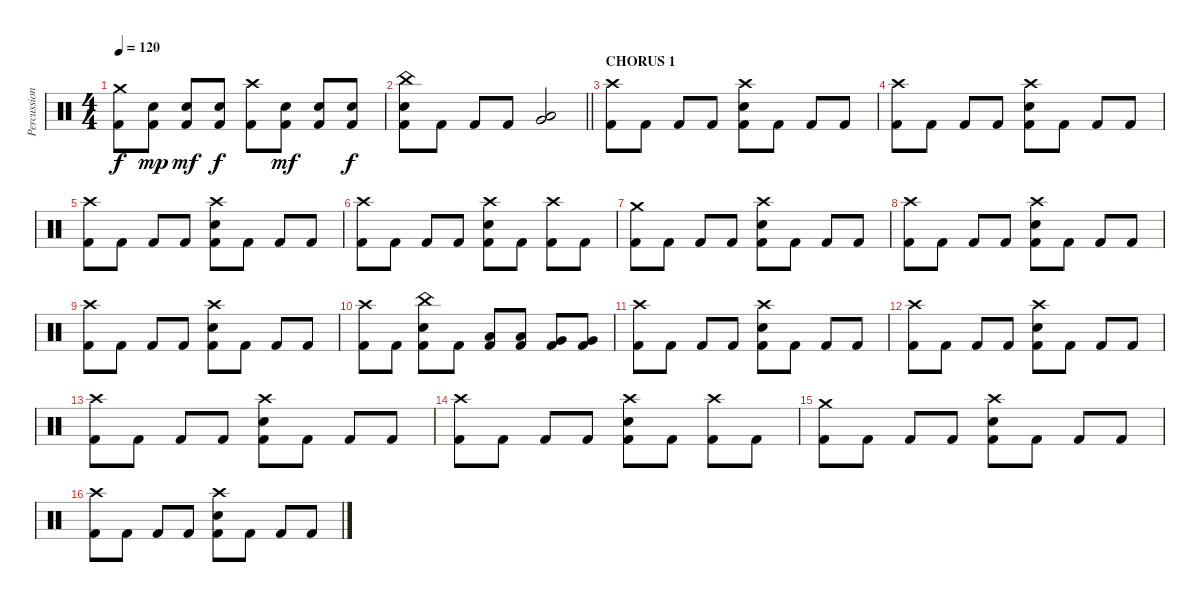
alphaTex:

\track ("Percussion" "Percussion") {instrument percussion}
\staff {score}
\articulation defaults
\ts (4 4)
\tempo 120
\clef neutral
\ks c
("Crash medium (hit)" "Kick (hit) 2").8{dy f} ("Electric Snare (hit)" "Kick (hit) 2").8{dy mp} ("Electric Snare (hit)" "Kick (hit) 2").8{dy mf} ("Electric Snare (hit)" "Kick (hit) 2").8{dy f} ("Crash high (hit)" "Kick (hit) 2").8 ("Electric Snare (hit)" "Kick (hit) 2").8{dy mf} ("Electric Snare (hit)" "Kick (hit) 2").8 ("Electric Snare (hit)" "Kick (hit) 2").8{dy f} |
\barLineRight lightlight
("China (hit)" "Electric Snare (hit)" "Kick (hit) 2").8 "Kick (hit) 2".8 "Kick (hit) 2".8 "Kick (hit) 2".8 ("Low Tom (hit)" "Very Low Tom (hit)").2{bu 120} |
\section ("" "CHORUS 1")
("Crash high (hit)" "Kick (hit) 2").8 "Kick (hit) 2".8 "Kick (hit) 2".8 "Kick (hit) 2".8 ("Crash high (hit)" "Electric Snare (hit)" "Kick (hit) 2").8 "Kick (hit) 2".8 "Kick (hit) 2".8 "Kick (hit) 2".8 |
("Crash high (hit)" "Kick (hit) 2").8 "Kick (hit) 2".8 "Kick (hit) 2".8 "Kick (hit) 2".8 ("Crash high (hit)" "Electric Snare (hit)" "Kick (hit) 2").8 "Kick (hit) 2".8 "Kick (hit) 2".8 "Kick (hit) 2".8 |
("Crash high (hit)" "Kick (hit) 2").8 "Kick (hit) 2".8 "Kick (hit) 2".8 "Kick (hit) 2".8 ("Crash high (hit)" "Electric Snare (hit)" "Kick (hit) 2").8 "Kick (hit) 2".8 "Kick (hit) 2".8 "Kick (hit) 2".8 |
("Crash high (hit)" "Kick (hit) 2").8 "Kick (hit) 2".8 "Kick (hit) 2".8 "Kick (hit) 2".8 ("Crash high (hit)" "Electric Snare (hit)" "Kick (hit) 2").8 "Kick (hit) 2".8 ("Crash high (hit)" "Kick (hit) 2").8 "Kick (hit) 2".8 |
("Crash medium (hit)" "Kick (hit) 2").8 "Kick (hit) 2".8 "Kick (hit) 2".8 "Kick (hit) 2".8 ("Crash high (hit)" "Electric Snare (hit)" "Kick (hit) 2").8 "Kick (hit) 2".8 "Kick (hit) 2".8 "Kick (hit) 2".8 |
("Crash high (hit)" "Kick (hit) 2").8 "Kick (hit) 2".8 "Kick (hit) 2".8 "Kick (hit) 2".8 ("Crash high (hit)" "Electric Snare (hit)" "Kick (hit) 2").8 "Kick (hit) 2".8 "Kick (hit) 2".8 "Kick (hit) 2".8 |
("Crash high (hit)" "Kick (hit) 2").8 "Kick (hit) 2".8 "Kick (hit) 2".8 "Kick (hit) 2".8 ("Crash high (hit)" "Electric Snare (hit)" "Kick (hit) 2").8 "Kick (hit) 2".8 "Kick (hit) 2".8 "Kick (hit) 2".8 |
("Crash high (hit)" "Kick (hit) 2").8 "Kick (hit) 2".8 ("China (hit)" "Electric Snare (hit)" "Kick (hit) 2").8 "Kick (hit) 2".8 ("Low Tom (hit)" "Kick (hit) 2").8 ("Low Tom (hit)" "Kick (hit) 2").8 ("Very Low Tom (hit)" "Kick (hit) 2").8 ("Very Low Tom (hit)" "Kick (hit) 2").8 |
("Crash high (hit)" "Kick (hit) 2").8 "Kick (hit) 2".8 "Kick (hit) 2".8 "Kick (hit) 2".8 ("Crash high (hit)" "Electric Snare (hit)" "Kick (hit) 2").8 "Kick (hit) 2".8 "Kick (hit) 2".8 "Kick (hit) 2".8 |
("Crash high (hit)" "Kick (hit) 2").8 "Kick (hit) 2".8 "Kick (hit) 2".8 "Kick (hit) 2".8 ("Crash high (hit)" "Electric Snare (hit)" "Kick (hit) 2").8 "Kick (hit) 2".8 "Kick (hit) 2".8 "Kick (hit) 2".8 |
("Crash high (hit)" "Kick (hit) 2").8 "Kick (hit) 2".8 "Kick (hit) 2".8 "Kick (hit) 2".8 ("Crash high (hit)" "Electric Snare (hit)" "Kick (hit) 2").8 "Kick (hit) 2".8 "Kick (hit) 2".8 "Kick (hit) 2".8 |
("Crash high (hit)" "Kick (hit) 2").8 "Kick (hit) 2".8 "Kick (hit) 2".8 "Kick (hit) 2".8 ("Crash high (hit)" "Electric Snare (hit)" "Kick (hit) 2").8 "Kick (hit) 2".8 ("Crash high (hit)" "Kick (hit) 2").8 "Kick (hit) 2".8 |
("Crash medium (hit)" "Kick (hit) 2").8 "Kick (hit) 2".8 "Kick (hit) 2".8 "Kick (hit) 2".8 ("Crash high (hit)" "Electric Snare (hit)" "Kick (hit) 2").8 "Kick (hit) 2".8 "Kick (hit) 2".8 "Kick (hit) 2".8 |
("Crash high (hit)" "Kick (hit) 2").8 "Kick (hit) 2".8 "Kick (hit) 2".8 "Kick (hit) 2".8 ("Crash high (hit)" "Electric Snare (hit)" "Kick (hit) 2").8 "Kick (hit) 2".8 "Kick (hit) 2".8 "Kick (hit) 2".8
